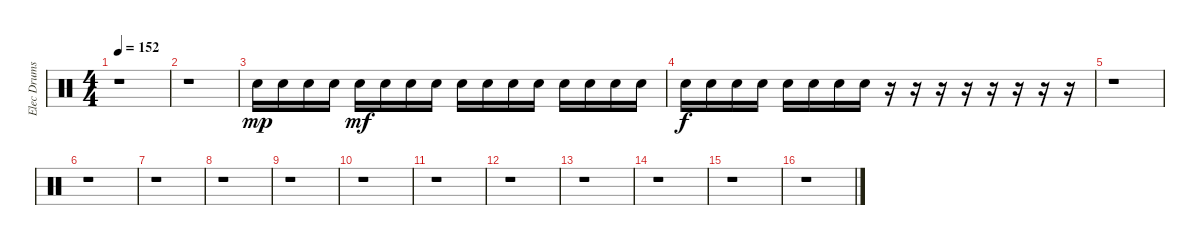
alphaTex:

\track ("Elec Drums" "Elec Drums") {instrument percussion}
\staff {score}
\articulation defaults
\ts (4 4)
\tempo 152
\clef neutral
\ks c
r.1{dy fff} |
r.1 |
"Electric Snare (hit)".16{dy mp} "Electric Snare (hit)".16 "Electric Snare (hit)".16 "Electric Snare (hit)".16 "Electric Snare (hit)".16{dy mf} "Electric Snare (hit)".16 "Electric Snare (hit)".16 "Electric Snare (hit)".16 "Electric Snare (hit)".16 "Electric Snare (hit)".16 "Electric Snare (hit)".16 "Electric Snare (hit)".16 "Electric Snare (hit)".16 "Electric Snare (hit)".16 "Electric Snare (hit)".16 "Electric Snare (hit)".16 |
"Electric Snare (hit)".16{dy f} "Electric Snare (hit)".16 "Electric Snare (hit)".16 "Electric Snare (hit)".16 "Electric Snare (hit)".16 "Electric Snare (hit)".16 "Electric Snare (hit)".16 "Electric Snare (hit)".16 r.16 r.16 r.16 r.16 r.16 r.16 r.16 r.16 |
r.1 |
r.1 |
r.1 |
r.1 |
r.1 |
r.1 |
r.1 |
r.1 |
r.1 |
r.1 |
r.1 |
r.1
